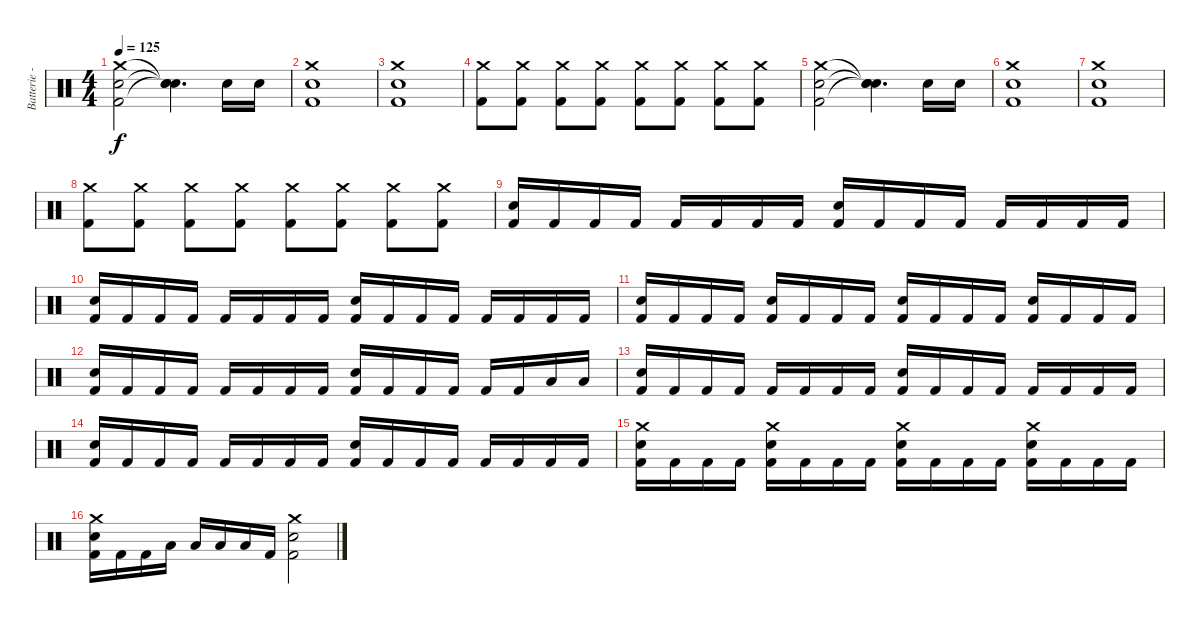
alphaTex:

\track ("Batterie - Shane Gaalaas" "Batterie -") {instrument percussion}
\staff {score}
\articulation defaults
\ts (4 4)
\tempo 125
\clef neutral
\ks c
("Crash medium (hit)" "Electric Snare (hit)" "Kick (hit) 2").2{dy f} ("Snare (hit)"{t} "Snare (hit)"{t} "Snare (hit)"{t}).4{d} "Electric Snare (hit)".16 "Electric Snare (hit)".16 |
("Crash medium (hit)" "Electric Snare (hit)" "Kick (hit) 2").1 |
("Crash medium (hit)" "Electric Snare (hit)" "Kick (hit) 2").1 |
("Crash medium (hit)" "Kick (hit) 2").8 ("Crash medium (hit)" "Kick (hit) 2").8 ("Crash medium (hit)" "Kick (hit) 2").8 ("Crash medium (hit)" "Kick (hit) 2").8 ("Crash medium (hit)" "Kick (hit) 2").8 ("Crash medium (hit)" "Kick (hit) 2").8 ("Crash medium (hit)" "Kick (hit) 2").8 ("Crash medium (hit)" "Kick (hit) 2").8 |
("Crash medium (hit)" "Electric Snare (hit)" "Kick (hit) 2").2 ("Snare (hit)"{t} "Snare (hit)"{t} "Snare (hit)"{t}).4{d} "Electric Snare (hit)".16 "Electric Snare (hit)".16 |
("Crash medium (hit)" "Electric Snare (hit)" "Kick (hit) 2").1 |
("Crash medium (hit)" "Electric Snare (hit)" "Kick (hit) 2").1 |
("Crash medium (hit)" "Kick (hit) 2").8 ("Crash medium (hit)" "Kick (hit) 2").8 ("Crash medium (hit)" "Kick (hit) 2").8 ("Crash medium (hit)" "Kick (hit) 2").8 ("Crash medium (hit)" "Kick (hit) 2").8 ("Crash medium (hit)" "Kick (hit) 2").8 ("Crash medium (hit)" "Kick (hit) 2").8 ("Crash medium (hit)" "Kick (hit) 2").8 |
("Electric Snare (hit)" "Kick (hit) 2").16 "Kick (hit) 2".16 "Kick (hit) 2".16 "Kick (hit) 2".16 "Kick (hit) 2".16 "Kick (hit) 2".16 "Kick (hit) 2".16 "Kick (hit) 2".16 ("Electric Snare (hit)" "Kick (hit) 2").16 "Kick (hit) 2".16 "Kick (hit) 2".16 "Kick (hit) 2".16 "Kick (hit) 2".16 "Kick (hit) 2".16 "Kick (hit) 2".16 "Kick (hit) 2".16 |
("Electric Snare (hit)" "Kick (hit) 2").16 "Kick (hit) 2".16 "Kick (hit) 2".16 "Kick (hit) 2".16 "Kick (hit) 2".16 "Kick (hit) 2".16 "Kick (hit) 2".16 "Kick (hit) 2".16 ("Electric Snare (hit)" "Kick (hit) 2").16 "Kick (hit) 2".16 "Kick (hit) 2".16 "Kick (hit) 2".16 "Kick (hit) 2".16 "Kick (hit) 2".16 "Kick (hit) 2".16 "Kick (hit) 2".16 |
("Electric Snare (hit)" "Kick (hit) 2").16 "Kick (hit) 2".16 "Kick (hit) 2".16 "Kick (hit) 2".16 ("Electric Snare (hit)" "Kick (hit) 2").16 "Kick (hit) 2".16 "Kick (hit) 2".16 "Kick (hit) 2".16 ("Electric Snare (hit)" "Kick (hit) 2").16 "Kick (hit) 2".16 "Kick (hit) 2".16 "Kick (hit) 2".16 ("Electric Snare (hit)" "Kick (hit) 2").16 "Kick (hit) 2".16 "Kick (hit) 2".16 "Kick (hit) 2".16 |
("Electric Snare (hit)" "Kick (hit) 2").16 "Kick (hit) 2".16 "Kick (hit) 2".16 "Kick (hit) 2".16 "Kick (hit) 2".16 "Kick (hit) 2".16 "Kick (hit) 2".16 "Kick (hit) 2".16 ("Electric Snare (hit)" "Kick (hit) 2").16 "Kick (hit) 2".16 "Kick (hit) 2".16 "Kick (hit) 2".16 "Kick (hit) 2".16 "Kick (hit) 2".16 "Low Tom (hit)".16 "Low Tom (hit)".16 |
("Electric Snare (hit)" "Kick (hit) 2").16 "Kick (hit) 2".16 "Kick (hit) 2".16 "Kick (hit) 2".16 "Kick (hit) 2".16 "Kick (hit) 2".16 "Kick (hit) 2".16 "Kick (hit) 2".16 ("Electric Snare (hit)" "Kick (hit) 2").16 "Kick (hit) 2".16 "Kick (hit) 2".16 "Kick (hit) 2".16 "Kick (hit) 2".16 "Kick (hit) 2".16 "Kick (hit) 2".16 "Kick (hit) 2".16 |
("Electric Snare (hit)" "Kick (hit) 2").16 "Kick (hit) 2".16 "Kick (hit) 2".16 "Kick (hit) 2".16 "Kick (hit) 2".16 "Kick (hit) 2".16 "Kick (hit) 2".16 "Kick (hit) 2".16 ("Electric Snare (hit)" "Kick (hit) 2").16 "Kick (hit) 2".16 "Kick (hit) 2".16 "Kick (hit) 2".16 "Kick (hit) 2".16 "Kick (hit) 2".16 "Kick (hit) 2".16 "Kick (hit) 2".16 |
("Crash medium (hit)" "Electric Snare (hit)" "Kick (hit) 2").16 "Kick (hit) 2".16 "Kick (hit) 2".16 "Kick (hit) 2".16 ("Crash medium (hit)" "Electric Snare (hit)" "Kick (hit) 2").16 "Kick (hit) 2".16 "Kick (hit) 2".16 "Kick (hit) 2".16 ("Crash medium (hit)" "Electric Snare (hit)" "Kick (hit) 2").16 "Kick (hit) 2".16 "Kick (hit) 2".16 "Kick (hit) 2".16 ("Crash medium (hit)" "Electric Snare (hit)" "Kick (hit) 2").16 "Kick (hit) 2".16 "Kick (hit) 2".16 "Kick (hit) 2".16 |
("Crash medium (hit)" "Electric Snare (hit)" "Kick (hit) 2").16 "Kick (hit) 2".16 "Kick (hit) 2".16 "Low Tom (hit)".16 "Low Tom (hit)".16 "Low Tom (hit)".16 "Low Tom (hit)".16 "Kick (hit) 2".16 ("Crash medium (hit)" "Electric Snare (hit)" "Kick (hit) 2").2
